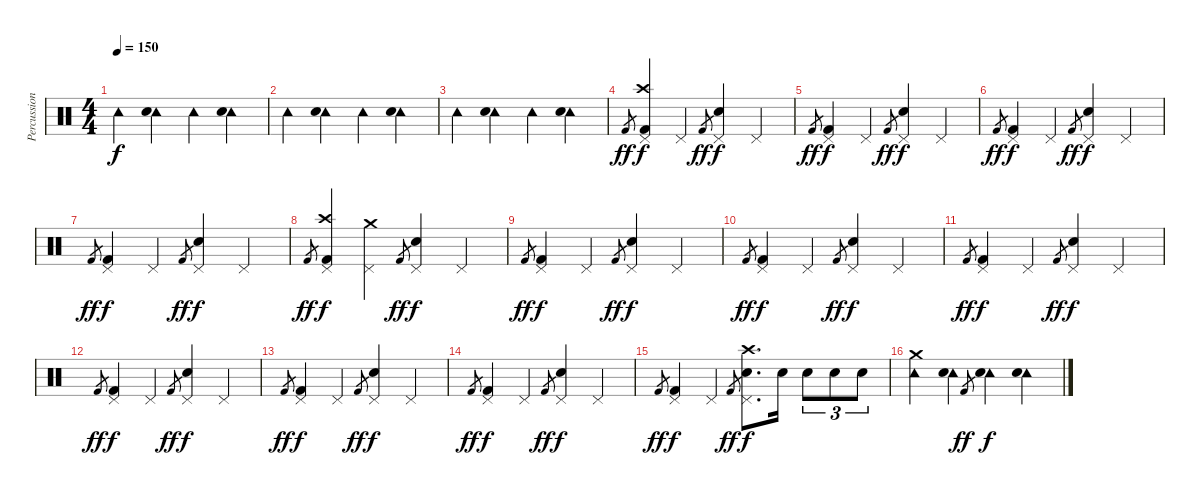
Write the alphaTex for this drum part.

\track ("Percussion" "Percussion") {instrument percussion}
\staff {score}
\articulation defaults
\ts (4 4)
\tempo 150
\clef neutral
\ks c "Tambourine (hit)".4{dy f}
("Tambourine (hit)" "Hand Clap (hit)").4 "Tambourine (hit)".4 ("Tambourine (hit)" "Hand Clap (hit)").4 |
"Tambourine (hit)".4 ("Tambourine (hit)" "Hand Clap (hit)").4 "Tambourine (hit)".4 ("Tambourine (hit)" "Hand Clap (hit)").4 |
"Tambourine (hit)".4 ("Tambourine (hit)" "Hand Clap (hit)").4 "Tambourine (hit)".4 ("Tambourine (hit)" "Hand Clap (hit)").4 |
"Kick (hit) 2".8{gr dy ff} ("Crash high (hit)" "Kick (hit) 2" "Pedal Hi-Hat (hit)").4{dy f} "Pedal Hi-Hat (hit)".4 "Kick (hit) 2".8{gr dy ff} ("Snare (hit) 2" "Pedal Hi-Hat (hit)").4{dy f} "Pedal Hi-Hat (hit)".4 |
"Kick (hit) 2".8{gr dy ff} ("Kick (hit) 2" "Pedal Hi-Hat (hit)").4{dy f} "Pedal Hi-Hat (hit)".4 "Kick (hit) 2".8{gr dy ff} ("Snare (hit) 2" "Pedal Hi-Hat (hit)").4{dy f} "Pedal Hi-Hat (hit)".4 |
"Kick (hit) 2".8{gr dy ff} ("Kick (hit) 2" "Pedal Hi-Hat (hit)").4{dy f} "Pedal Hi-Hat (hit)".4 "Kick (hit) 2".8{gr dy ff} ("Snare (hit) 2" "Pedal Hi-Hat (hit)").4{dy f} "Pedal Hi-Hat (hit)".4 |
"Kick (hit) 2".8{gr dy ff} ("Kick (hit) 2" "Pedal Hi-Hat (hit)").4{dy f} "Pedal Hi-Hat (hit)".4 "Kick (hit) 2".8{gr dy ff} ("Snare (hit) 2" "Pedal Hi-Hat (hit)").4{dy f} "Pedal Hi-Hat (hit)".4 |
"Kick (hit) 2".8{gr dy ff} ("Crash high (hit)" "Kick (hit) 2" "Pedal Hi-Hat (hit)").4{dy f} ("Pedal Hi-Hat (hit)" "Crash medium (hit)").4 "Kick (hit) 2".8{gr dy ff} ("Snare (hit) 2" "Pedal Hi-Hat (hit)").4{dy f} "Pedal Hi-Hat (hit)".4 |
"Kick (hit) 2".8{gr dy ff} ("Kick (hit) 2" "Pedal Hi-Hat (hit)").4{dy f} "Pedal Hi-Hat (hit)".4 "Kick (hit) 2".8{gr dy ff} ("Snare (hit) 2" "Pedal Hi-Hat (hit)").4{dy f} "Pedal Hi-Hat (hit)".4 |
"Kick (hit) 2".8{gr dy ff} ("Kick (hit) 2" "Pedal Hi-Hat (hit)").4{dy f} "Pedal Hi-Hat (hit)".4 "Kick (hit) 2".8{gr dy ff} ("Snare (hit) 2" "Pedal Hi-Hat (hit)").4{dy f} "Pedal Hi-Hat (hit)".4 |
"Kick (hit) 2".8{gr dy ff} ("Kick (hit) 2" "Pedal Hi-Hat (hit)").4{dy f} "Pedal Hi-Hat (hit)".4 "Kick (hit) 2".8{gr dy ff} ("Snare (hit) 2" "Pedal Hi-Hat (hit)").4{dy f} "Pedal Hi-Hat (hit)".4 |
"Kick (hit) 2".8{gr dy ff} ("Kick (hit) 2" "Pedal Hi-Hat (hit)").4{dy f} "Pedal Hi-Hat (hit)".4 "Kick (hit) 2".8{gr dy ff} ("Snare (hit) 2" "Pedal Hi-Hat (hit)").4{dy f} "Pedal Hi-Hat (hit)".4 |
"Kick (hit) 2".8{gr dy ff} ("Kick (hit) 2" "Pedal Hi-Hat (hit)").4{dy f} "Pedal Hi-Hat (hit)".4 "Kick (hit) 2".8{gr dy ff} ("Snare (hit) 2" "Pedal Hi-Hat (hit)").4{dy f} "Pedal Hi-Hat (hit)".4 |
"Kick (hit) 2".8{gr dy ff} ("Kick (hit) 2" "Pedal Hi-Hat (hit)").4{dy f} "Pedal Hi-Hat (hit)".4 "Kick (hit) 2".8{gr dy ff} ("Snare (hit) 2" "Pedal Hi-Hat (hit)").4{dy f} "Pedal Hi-Hat (hit)".4 |
"Kick (hit) 2".8{gr dy ff} ("Kick (hit) 2" "Pedal Hi-Hat (hit)").4{dy f} "Pedal Hi-Hat (hit)".4 "Kick (hit) 2".8{gr dy ff} ("Crash high (hit)" "Snare (hit) 2" "Pedal Hi-Hat (hit)").8{d dy f} "Snare (hit) 2".16 "Snare (hit) 2".8{tu (3 2)} "Snare (hit) 2".8{tu (3 2)} "Snare (hit) 2".8{tu (3 2)} |
("Tambourine (hit)" "Crash medium (hit)").4 ("Tambourine (hit)" "Hand Clap (hit)").4 "Kick (hit) 2".8{gr dy ff} ("Tambourine (hit)" "Snare (hit) 2").4{dy f} ("Tambourine (hit)" "Hand Clap (hit)").4
